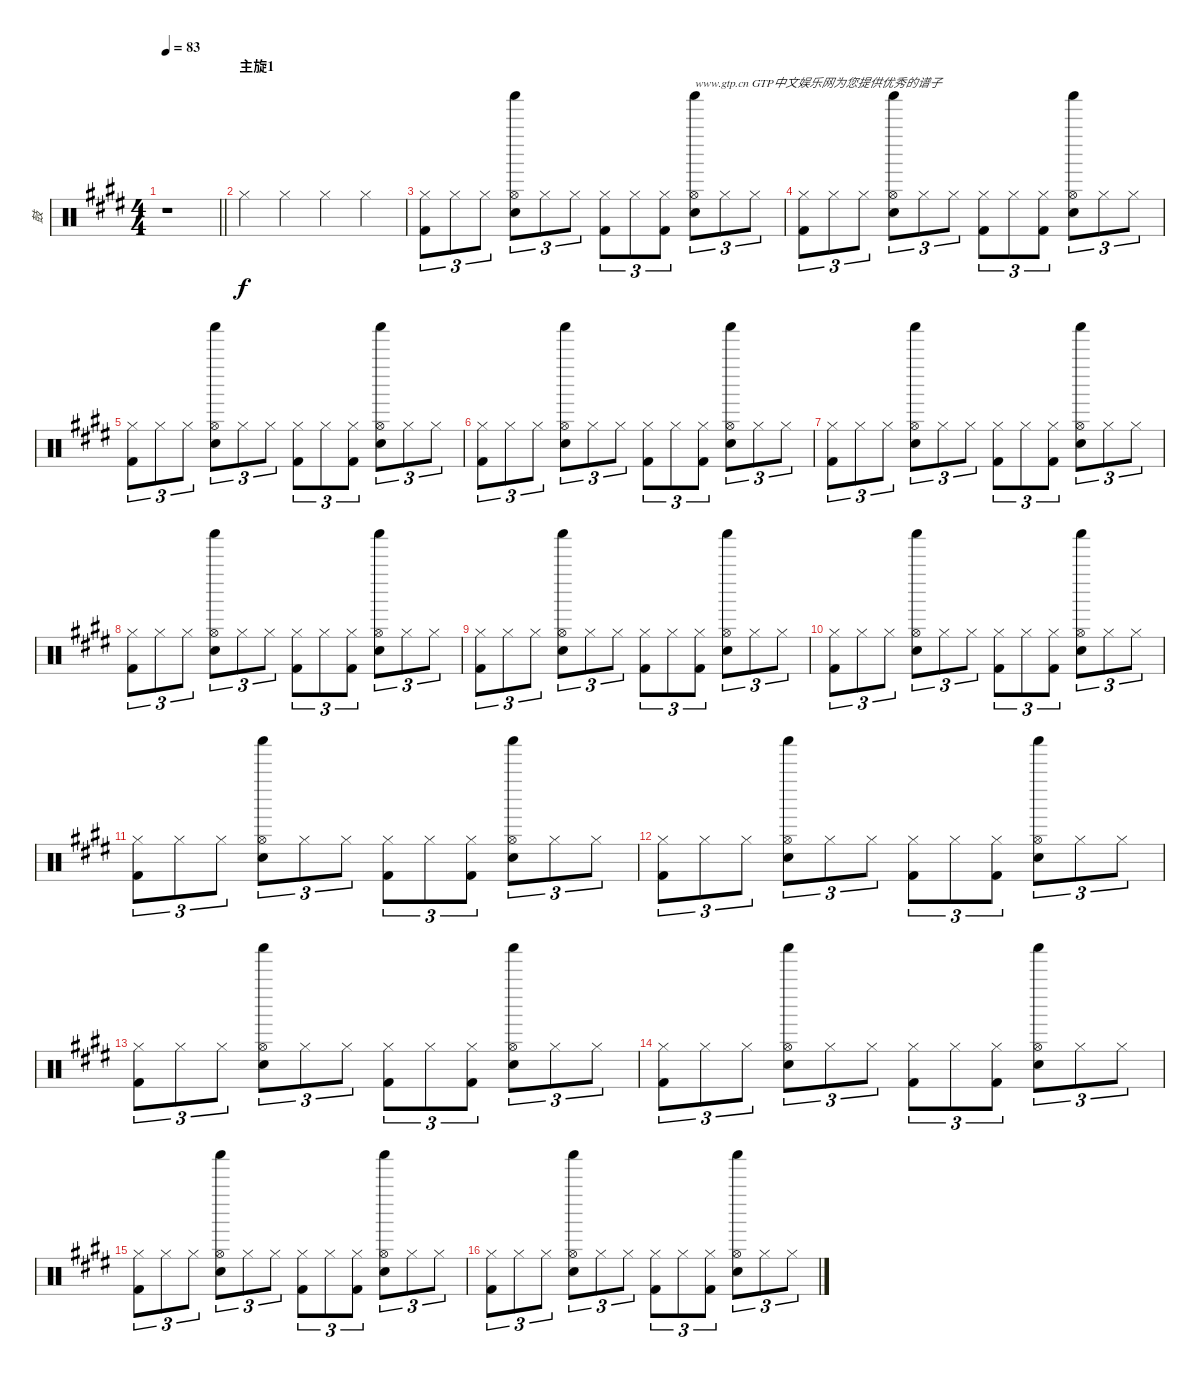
\track ("鼓" "鼓") {instrument percussion}
\staff {score}
\articulation defaults
\ts (4 4)
\tempo 83
\clef neutral
\barLineRight lightlight
\ks e
r.1{dy f} |
\section ("" "主旋1")
"Hi-Hat (closed)".4 "Hi-Hat (closed)".4 "Hi-Hat (closed)".4 "Hi-Hat (closed)".4 |
("Kick (hit) 2" "Hi-Hat (closed)").8{tu (3 2)} "Hi-Hat (closed)".8{tu (3 2)} "Hi-Hat (closed)".8{tu (3 2)} ("Electric Snare (hit)" "Shaker (hit)" "Hi-Hat (open)").8{tu (3 2)} "Hi-Hat (closed)".8{tu (3 2)} "Hi-Hat (closed)".8{tu (3 2)} ("Kick (hit) 2" "Hi-Hat (closed)").8{tu (3 2)} "Hi-Hat (closed)".8{tu (3 2)} ("Kick (hit) 2" "Hi-Hat (closed)").8{tu (3 2)} ("Electric Snare (hit)" "Shaker (hit)" "Hi-Hat (open)").8{tu (3 2) txt "www.gtp.cn GTP中文娱乐网为您提供优秀的谱子"} "Hi-Hat (closed)".8{tu (3 2)} "Hi-Hat (closed)".8{tu (3 2)} |
("Kick (hit) 2" "Hi-Hat (closed)").8{tu (3 2)} "Hi-Hat (closed)".8{tu (3 2)} "Hi-Hat (closed)".8{tu (3 2)} ("Electric Snare (hit)" "Shaker (hit)" "Hi-Hat (open)").8{tu (3 2)} "Hi-Hat (closed)".8{tu (3 2)} "Hi-Hat (closed)".8{tu (3 2)} ("Kick (hit) 2" "Hi-Hat (closed)").8{tu (3 2)} "Hi-Hat (closed)".8{tu (3 2)} ("Kick (hit) 2" "Hi-Hat (closed)").8{tu (3 2)} ("Electric Snare (hit)" "Shaker (hit)" "Hi-Hat (open)").8{tu (3 2)} "Hi-Hat (closed)".8{tu (3 2)} "Hi-Hat (closed)".8{tu (3 2)} |
("Kick (hit) 2" "Hi-Hat (closed)").8{tu (3 2)} "Hi-Hat (closed)".8{tu (3 2)} "Hi-Hat (closed)".8{tu (3 2)} ("Electric Snare (hit)" "Shaker (hit)" "Hi-Hat (open)").8{tu (3 2)} "Hi-Hat (closed)".8{tu (3 2)} "Hi-Hat (closed)".8{tu (3 2)} ("Kick (hit) 2" "Hi-Hat (closed)").8{tu (3 2)} "Hi-Hat (closed)".8{tu (3 2)} ("Kick (hit) 2" "Hi-Hat (closed)").8{tu (3 2)} ("Electric Snare (hit)" "Shaker (hit)" "Hi-Hat (open)").8{tu (3 2)} "Hi-Hat (closed)".8{tu (3 2)} "Hi-Hat (closed)".8{tu (3 2)} |
("Kick (hit) 2" "Hi-Hat (closed)").8{tu (3 2)} "Hi-Hat (closed)".8{tu (3 2)} "Hi-Hat (closed)".8{tu (3 2)} ("Electric Snare (hit)" "Shaker (hit)" "Hi-Hat (open)").8{tu (3 2)} "Hi-Hat (closed)".8{tu (3 2)} "Hi-Hat (closed)".8{tu (3 2)} ("Kick (hit) 2" "Hi-Hat (closed)").8{tu (3 2)} "Hi-Hat (closed)".8{tu (3 2)} ("Kick (hit) 2" "Hi-Hat (closed)").8{tu (3 2)} ("Electric Snare (hit)" "Shaker (hit)" "Hi-Hat (open)").8{tu (3 2)} "Hi-Hat (closed)".8{tu (3 2)} "Hi-Hat (closed)".8{tu (3 2)} |
("Kick (hit) 2" "Hi-Hat (closed)").8{tu (3 2)} "Hi-Hat (closed)".8{tu (3 2)} "Hi-Hat (closed)".8{tu (3 2)} ("Electric Snare (hit)" "Shaker (hit)" "Hi-Hat (open)").8{tu (3 2)} "Hi-Hat (closed)".8{tu (3 2)} "Hi-Hat (closed)".8{tu (3 2)} ("Kick (hit) 2" "Hi-Hat (closed)").8{tu (3 2)} "Hi-Hat (closed)".8{tu (3 2)} ("Kick (hit) 2" "Hi-Hat (closed)").8{tu (3 2)} ("Electric Snare (hit)" "Shaker (hit)" "Hi-Hat (open)").8{tu (3 2)} "Hi-Hat (closed)".8{tu (3 2)} "Hi-Hat (closed)".8{tu (3 2)} |
("Kick (hit) 2" "Hi-Hat (closed)").8{tu (3 2)} "Hi-Hat (closed)".8{tu (3 2)} "Hi-Hat (closed)".8{tu (3 2)} ("Electric Snare (hit)" "Shaker (hit)" "Hi-Hat (open)").8{tu (3 2)} "Hi-Hat (closed)".8{tu (3 2)} "Hi-Hat (closed)".8{tu (3 2)} ("Kick (hit) 2" "Hi-Hat (closed)").8{tu (3 2)} "Hi-Hat (closed)".8{tu (3 2)} ("Kick (hit) 2" "Hi-Hat (closed)").8{tu (3 2)} ("Electric Snare (hit)" "Shaker (hit)" "Hi-Hat (open)").8{tu (3 2)} "Hi-Hat (closed)".8{tu (3 2)} "Hi-Hat (closed)".8{tu (3 2)} |
("Kick (hit) 2" "Hi-Hat (closed)").8{tu (3 2)} "Hi-Hat (closed)".8{tu (3 2)} "Hi-Hat (closed)".8{tu (3 2)} ("Electric Snare (hit)" "Shaker (hit)" "Hi-Hat (open)").8{tu (3 2)} "Hi-Hat (closed)".8{tu (3 2)} "Hi-Hat (closed)".8{tu (3 2)} ("Kick (hit) 2" "Hi-Hat (closed)").8{tu (3 2)} "Hi-Hat (closed)".8{tu (3 2)} ("Kick (hit) 2" "Hi-Hat (closed)").8{tu (3 2)} ("Electric Snare (hit)" "Shaker (hit)" "Hi-Hat (open)").8{tu (3 2)} "Hi-Hat (closed)".8{tu (3 2)} "Hi-Hat (closed)".8{tu (3 2)} |
("Kick (hit) 2" "Hi-Hat (closed)").8{tu (3 2)} "Hi-Hat (closed)".8{tu (3 2)} "Hi-Hat (closed)".8{tu (3 2)} ("Electric Snare (hit)" "Shaker (hit)" "Hi-Hat (open)").8{tu (3 2)} "Hi-Hat (closed)".8{tu (3 2)} "Hi-Hat (closed)".8{tu (3 2)} ("Kick (hit) 2" "Hi-Hat (closed)").8{tu (3 2)} "Hi-Hat (closed)".8{tu (3 2)} ("Kick (hit) 2" "Hi-Hat (closed)").8{tu (3 2)} ("Electric Snare (hit)" "Shaker (hit)" "Hi-Hat (open)").8{tu (3 2)} "Hi-Hat (closed)".8{tu (3 2)} "Hi-Hat (closed)".8{tu (3 2)} |
("Kick (hit) 2" "Hi-Hat (closed)").8{tu (3 2)} "Hi-Hat (closed)".8{tu (3 2)} "Hi-Hat (closed)".8{tu (3 2)} ("Electric Snare (hit)" "Shaker (hit)" "Hi-Hat (open)").8{tu (3 2)} "Hi-Hat (closed)".8{tu (3 2)} "Hi-Hat (closed)".8{tu (3 2)} ("Kick (hit) 2" "Hi-Hat (closed)").8{tu (3 2)} "Hi-Hat (closed)".8{tu (3 2)} ("Kick (hit) 2" "Hi-Hat (closed)").8{tu (3 2)} ("Electric Snare (hit)" "Shaker (hit)" "Hi-Hat (open)").8{tu (3 2)} "Hi-Hat (closed)".8{tu (3 2)} "Hi-Hat (closed)".8{tu (3 2)} |
("Kick (hit) 2" "Hi-Hat (closed)").8{tu (3 2)} "Hi-Hat (closed)".8{tu (3 2)} "Hi-Hat (closed)".8{tu (3 2)} ("Electric Snare (hit)" "Shaker (hit)" "Hi-Hat (open)").8{tu (3 2)} "Hi-Hat (closed)".8{tu (3 2)} "Hi-Hat (closed)".8{tu (3 2)} ("Kick (hit) 2" "Hi-Hat (closed)").8{tu (3 2)} "Hi-Hat (closed)".8{tu (3 2)} ("Kick (hit) 2" "Hi-Hat (closed)").8{tu (3 2)} ("Electric Snare (hit)" "Shaker (hit)" "Hi-Hat (open)").8{tu (3 2)} "Hi-Hat (closed)".8{tu (3 2)} "Hi-Hat (closed)".8{tu (3 2)} |
("Kick (hit) 2" "Hi-Hat (closed)").8{tu (3 2)} "Hi-Hat (closed)".8{tu (3 2)} "Hi-Hat (closed)".8{tu (3 2)} ("Electric Snare (hit)" "Shaker (hit)" "Hi-Hat (open)").8{tu (3 2)} "Hi-Hat (closed)".8{tu (3 2)} "Hi-Hat (closed)".8{tu (3 2)} ("Kick (hit) 2" "Hi-Hat (closed)").8{tu (3 2)} "Hi-Hat (closed)".8{tu (3 2)} ("Kick (hit) 2" "Hi-Hat (closed)").8{tu (3 2)} ("Electric Snare (hit)" "Shaker (hit)" "Hi-Hat (open)").8{tu (3 2)} "Hi-Hat (closed)".8{tu (3 2)} "Hi-Hat (closed)".8{tu (3 2)} |
("Kick (hit) 2" "Hi-Hat (closed)").8{tu (3 2)} "Hi-Hat (closed)".8{tu (3 2)} "Hi-Hat (closed)".8{tu (3 2)} ("Electric Snare (hit)" "Shaker (hit)" "Hi-Hat (open)").8{tu (3 2)} "Hi-Hat (closed)".8{tu (3 2)} "Hi-Hat (closed)".8{tu (3 2)} ("Kick (hit) 2" "Hi-Hat (closed)").8{tu (3 2)} "Hi-Hat (closed)".8{tu (3 2)} ("Kick (hit) 2" "Hi-Hat (closed)").8{tu (3 2)} ("Electric Snare (hit)" "Shaker (hit)" "Hi-Hat (open)").8{tu (3 2)} "Hi-Hat (closed)".8{tu (3 2)} "Hi-Hat (closed)".8{tu (3 2)} |
("Kick (hit) 2" "Hi-Hat (closed)").8{tu (3 2)} "Hi-Hat (closed)".8{tu (3 2)} "Hi-Hat (closed)".8{tu (3 2)} ("Electric Snare (hit)" "Shaker (hit)" "Hi-Hat (open)").8{tu (3 2)} "Hi-Hat (closed)".8{tu (3 2)} "Hi-Hat (closed)".8{tu (3 2)} ("Kick (hit) 2" "Hi-Hat (closed)").8{tu (3 2)} "Hi-Hat (closed)".8{tu (3 2)} ("Kick (hit) 2" "Hi-Hat (closed)").8{tu (3 2)} ("Electric Snare (hit)" "Shaker (hit)" "Hi-Hat (open)").8{tu (3 2)} "Hi-Hat (closed)".8{tu (3 2)} "Hi-Hat (closed)".8{tu (3 2)} |
("Kick (hit) 2" "Hi-Hat (closed)").8{tu (3 2)} "Hi-Hat (closed)".8{tu (3 2)} "Hi-Hat (closed)".8{tu (3 2)} ("Electric Snare (hit)" "Shaker (hit)" "Hi-Hat (open)").8{tu (3 2)} "Hi-Hat (closed)".8{tu (3 2)} "Hi-Hat (closed)".8{tu (3 2)} ("Kick (hit) 2" "Hi-Hat (closed)").8{tu (3 2)} "Hi-Hat (closed)".8{tu (3 2)} ("Kick (hit) 2" "Hi-Hat (closed)").8{tu (3 2)} ("Electric Snare (hit)" "Shaker (hit)" "Hi-Hat (open)").8{tu (3 2)} "Hi-Hat (closed)".8{tu (3 2)} "Hi-Hat (closed)".8{tu (3 2)}
